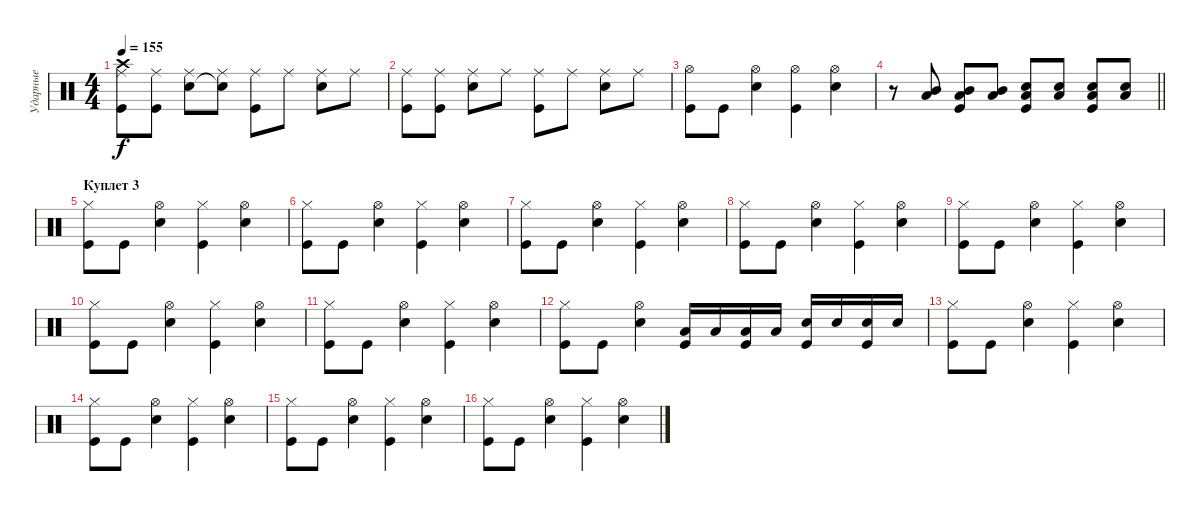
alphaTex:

\track ("Ударные" "Ударные") {instrument percussion}
\staff {score}
\articulation defaults
\ts (4 4)
\tempo 155
\clef neutral
\ks c
("Ride (middle)" "Crash high (hit)" "Kick (hit)").8{dy f} ("Ride (middle)" "Kick (hit)").8 ("Ride (middle)" "Snare (hit) 2").8 ("Ride (middle)" "Snare (hit)"{t}).8 ("Ride (middle)" "Kick (hit)").8 "Ride (middle)".8 ("Ride (middle)" "Snare (hit) 2").8 "Ride (middle)".8 |
("Ride (middle)" "Kick (hit)").8 ("Ride (middle)" "Kick (hit)").8 ("Ride (middle)" "Snare (hit) 2").8 "Ride (middle)".8 ("Ride (middle)" "Kick (hit)").8 "Ride (middle)".8 ("Ride (middle)" "Snare (hit) 2").8 "Ride (middle)".8 |
("Hi-Hat (open)" "Kick (hit)").8 "Kick (hit)".8 ("Hi-Hat (open)" "Snare (hit) 2").4 ("Hi-Hat (open)" "Kick (hit)").4 ("Hi-Hat (open)" "Snare (hit) 2").4 |
\barLineRight lightlight
r.8 ("Mid Tom (hit)" "Low Tom (hit)").8 ("Mid Tom (hit)" "Low Tom (hit)" "Kick (hit)").8 ("Mid Tom (hit)" "Low Tom (hit)").8 ("Snare (hit) 2" "Low Tom (hit)" "Kick (hit)").8 ("Snare (hit) 2" "Low Tom (hit)").8 ("Snare (hit) 2" "Low Tom (hit)" "Kick (hit)").8 ("Snare (hit) 2" "Low Tom (hit)").8 |
\section ("" "Куплет 3")
("Hi-Hat (closed)" "Kick (hit)").8 "Kick (hit)".8 ("Hi-Hat (open)" "Snare (hit) 2").4 ("Hi-Hat (closed)" "Kick (hit)").4 ("Hi-Hat (open)" "Snare (hit) 2").4 |
("Hi-Hat (closed)" "Kick (hit)").8 "Kick (hit)".8 ("Hi-Hat (open)" "Snare (hit) 2").4 ("Hi-Hat (closed)" "Kick (hit)").4 ("Hi-Hat (open)" "Snare (hit) 2").4 |
("Hi-Hat (closed)" "Kick (hit)").8 "Kick (hit)".8 ("Hi-Hat (open)" "Snare (hit) 2").4 ("Hi-Hat (closed)" "Kick (hit)").4 ("Hi-Hat (open)" "Snare (hit) 2").4 |
("Hi-Hat (closed)" "Kick (hit)").8 "Kick (hit)".8 ("Hi-Hat (open)" "Snare (hit) 2").4 ("Hi-Hat (closed)" "Kick (hit)").4 ("Hi-Hat (open)" "Snare (hit) 2").4 |
("Hi-Hat (closed)" "Kick (hit)").8 "Kick (hit)".8 ("Hi-Hat (open)" "Snare (hit) 2").4 ("Hi-Hat (closed)" "Kick (hit)").4 ("Hi-Hat (open)" "Snare (hit) 2").4 |
("Hi-Hat (closed)" "Kick (hit)").8 "Kick (hit)".8 ("Hi-Hat (open)" "Snare (hit) 2").4 ("Hi-Hat (closed)" "Kick (hit)").4 ("Hi-Hat (open)" "Snare (hit) 2").4 |
("Hi-Hat (closed)" "Kick (hit)").8 "Kick (hit)".8 ("Hi-Hat (open)" "Snare (hit) 2").4 ("Hi-Hat (closed)" "Kick (hit)").4 ("Hi-Hat (open)" "Snare (hit) 2").4 |
("Hi-Hat (closed)" "Kick (hit)").8 "Kick (hit)".8 ("Hi-Hat (open)" "Snare (hit) 2").4 ("Low Tom (hit)" "Kick (hit)").16 "Low Tom (hit)".16 ("Low Tom (hit)" "Kick (hit)").16 "Low Tom (hit)".16 ("Snare (hit) 2" "Kick (hit)").16 "Snare (hit) 2".16 ("Snare (hit) 2" "Kick (hit)").16 "Snare (hit) 2".16 |
("Hi-Hat (closed)" "Kick (hit)").8 "Kick (hit)".8 ("Hi-Hat (open)" "Snare (hit) 2").4 ("Hi-Hat (closed)" "Kick (hit)").4 ("Hi-Hat (open)" "Snare (hit) 2").4 |
("Hi-Hat (closed)" "Kick (hit)").8 "Kick (hit)".8 ("Hi-Hat (open)" "Snare (hit) 2").4 ("Hi-Hat (closed)" "Kick (hit)").4 ("Hi-Hat (open)" "Snare (hit) 2").4 |
("Hi-Hat (closed)" "Kick (hit)").8 "Kick (hit)".8 ("Hi-Hat (open)" "Snare (hit) 2").4 ("Hi-Hat (closed)" "Kick (hit)").4 ("Hi-Hat (open)" "Snare (hit) 2").4 |
("Hi-Hat (closed)" "Kick (hit)").8 "Kick (hit)".8 ("Hi-Hat (open)" "Snare (hit) 2").4 ("Hi-Hat (closed)" "Kick (hit)").4 ("Hi-Hat (open)" "Snare (hit) 2").4
